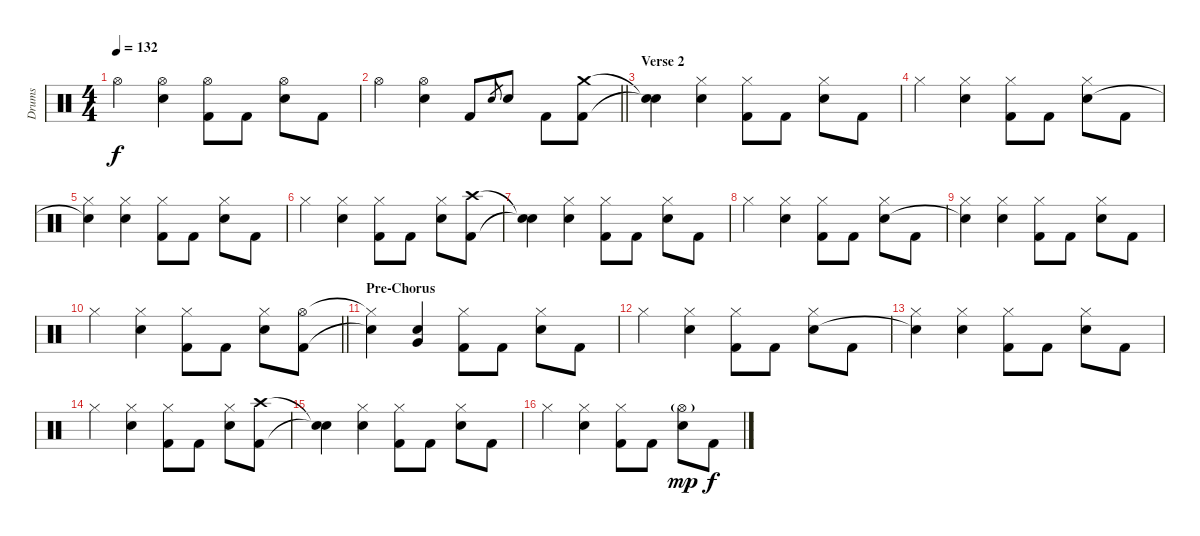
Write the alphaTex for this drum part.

\track ("Drums" "Drums") {instrument percussion}
\staff {score}
\articulation defaults
\ts (4 4)
\tempo 132
\clef neutral
\ks c "Hi-Hat (open)".4{dy f}
("Hi-Hat (open)" "Electric Snare (hit)").4 ("Hi-Hat (open)" "Kick (hit) 2").8 "Kick (hit) 2".8 ("Hi-Hat (open)" "Electric Snare (hit)").8 "Kick (hit) 2".8 |
\barLineRight lightlight "Hi-Hat (open)".4
("Hi-Hat (open)" "Electric Snare (hit)").4 "Kick (hit) 2".8 "Electric Snare (hit)".8{gr} "Electric Snare (hit)".8 "Kick (hit) 2".8 ("Crash medium (hit)" "Kick (hit) 2").8 |
\section ("" "Verse 2")
("Snare (hit)"{t} "Snare (hit)"{t}).4 ("Hi-Hat (closed)" "Electric Snare (hit)").4 ("Hi-Hat (closed)" "Kick (hit) 2").8 "Kick (hit) 2".8 ("Hi-Hat (closed)" "Electric Snare (hit)").8 "Kick (hit) 2".8 |
"Hi-Hat (closed)".4 ("Hi-Hat (closed)" "Electric Snare (hit)").4 ("Hi-Hat (closed)" "Kick (hit) 2").8 "Kick (hit) 2".8 ("Hi-Hat (closed)" "Electric Snare (hit)").8 "Kick (hit) 2".8 |
("Hi-Hat (closed)" "Snare (hit)"{t}).4 ("Hi-Hat (closed)" "Electric Snare (hit)").4 ("Hi-Hat (closed)" "Kick (hit) 2").8 "Kick (hit) 2".8 ("Hi-Hat (closed)" "Electric Snare (hit)").8 "Kick (hit) 2".8 |
"Hi-Hat (closed)".4 ("Hi-Hat (closed)" "Electric Snare (hit)").4 ("Hi-Hat (closed)" "Kick (hit) 2").8 "Kick (hit) 2".8 ("Hi-Hat (closed)" "Electric Snare (hit)").8 ("Crash high (hit)" "Kick (hit) 2").8 |
("Snare (hit)"{t} "Snare (hit)"{t}).4 ("Hi-Hat (closed)" "Electric Snare (hit)").4 ("Hi-Hat (closed)" "Kick (hit) 2").8 "Kick (hit) 2".8 ("Hi-Hat (closed)" "Electric Snare (hit)").8 "Kick (hit) 2".8 |
"Hi-Hat (closed)".4 ("Hi-Hat (closed)" "Electric Snare (hit)").4 ("Hi-Hat (closed)" "Kick (hit) 2").8 "Kick (hit) 2".8 ("Hi-Hat (closed)" "Electric Snare (hit)").8 "Kick (hit) 2".8 |
("Hi-Hat (closed)" "Snare (hit)"{t}).4 ("Hi-Hat (closed)" "Electric Snare (hit)").4 ("Hi-Hat (closed)" "Kick (hit) 2").8 "Kick (hit) 2".8 ("Hi-Hat (closed)" "Electric Snare (hit)").8 "Kick (hit) 2".8 |
\barLineRight lightlight "Hi-Hat (closed)".4
("Hi-Hat (closed)" "Electric Snare (hit)").4 ("Hi-Hat (closed)" "Kick (hit) 2").8 "Kick (hit) 2".8 ("Hi-Hat (closed)" "Electric Snare (hit)").8 ("Hi-Hat (open)" "Kick (hit) 2").8 |
\section ("" "Pre-Chorus")
("Hi-Hat (closed)"{t} "Snare (hit)"{t}).4 ("Very Low Tom (hit)" "Electric Snare (hit)").4 ("Hi-Hat (closed)" "Kick (hit) 2").8 "Kick (hit) 2".8 ("Hi-Hat (closed)" "Electric Snare (hit)").8 "Kick (hit) 2".8 |
"Hi-Hat (closed)".4 ("Hi-Hat (closed)" "Electric Snare (hit)").4 ("Hi-Hat (closed)" "Kick (hit) 2").8 "Kick (hit) 2".8 ("Hi-Hat (closed)" "Electric Snare (hit)").8 "Kick (hit) 2".8 |
("Hi-Hat (closed)" "Snare (hit)"{t}).4 ("Hi-Hat (closed)" "Electric Snare (hit)").4 ("Hi-Hat (closed)" "Kick (hit) 2").8 "Kick (hit) 2".8 ("Hi-Hat (closed)" "Electric Snare (hit)").8 "Kick (hit) 2".8 |
"Hi-Hat (closed)".4 ("Hi-Hat (closed)" "Electric Snare (hit)").4 ("Hi-Hat (closed)" "Kick (hit) 2").8 "Kick (hit) 2".8 ("Hi-Hat (closed)" "Electric Snare (hit)").8 ("Crash high (hit)" "Kick (hit) 2").8 |
("Snare (hit)"{t} "Snare (hit)"{t}).4 ("Hi-Hat (closed)" "Electric Snare (hit)").4 ("Hi-Hat (closed)" "Kick (hit) 2").8 "Kick (hit) 2".8 ("Hi-Hat (closed)" "Electric Snare (hit)").8 "Kick (hit) 2".8 |
"Hi-Hat (closed)".4 ("Hi-Hat (closed)" "Electric Snare (hit)").4 ("Hi-Hat (closed)" "Kick (hit) 2").8 "Kick (hit) 2".8 ("Hi-Hat (open)"{g} "Electric Snare (hit)").8{dy mp} "Kick (hit) 2".8{dy f}
